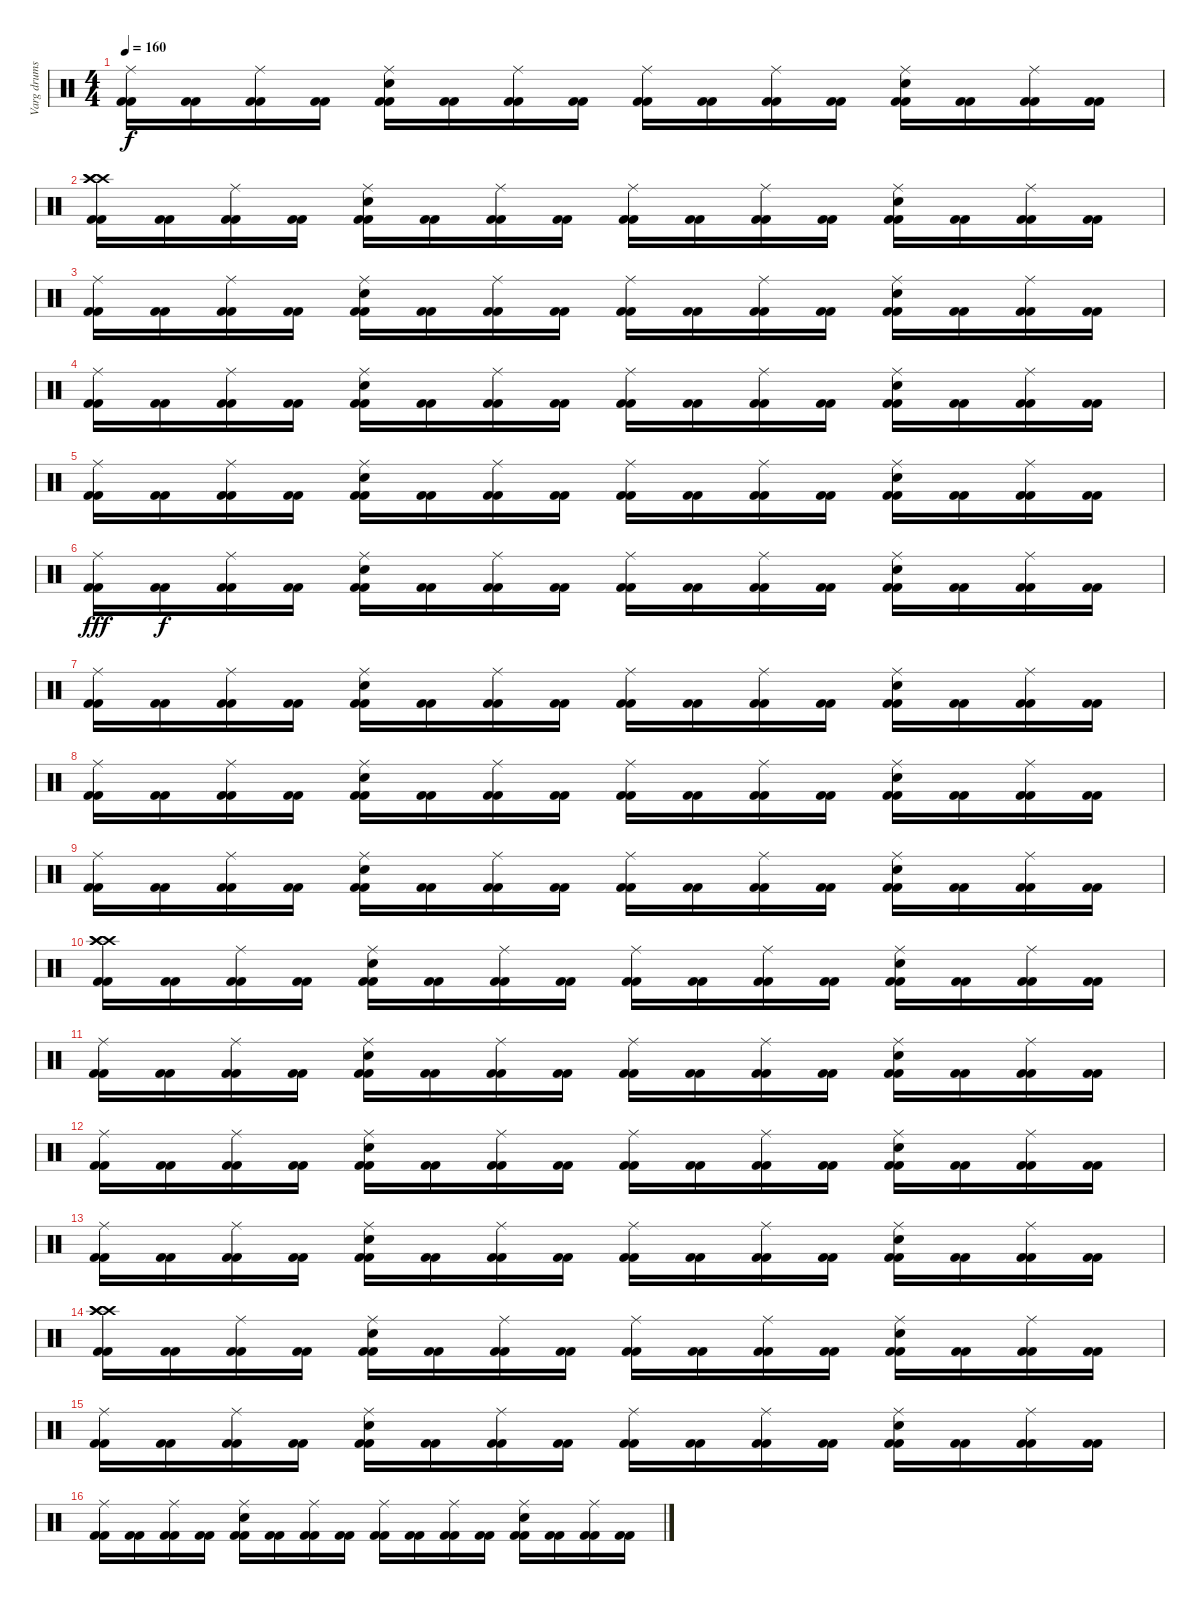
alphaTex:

\track ("Varg drums" "Varg drums") {instrument percussion}
\staff {score}
\articulation defaults
\ts (4 4)
\tempo 160
\clef neutral
\ks c
("Ride (middle)" "Kick (hit) 2" "Kick (hit) 2").16{dy f} ("Kick (hit) 2" "Kick (hit) 2").16 ("Ride (middle)" "Kick (hit) 2" "Kick (hit) 2").16 ("Kick (hit) 2" "Kick (hit) 2").16 ("Ride (middle)" "Electric Snare (hit)" "Kick (hit) 2" "Kick (hit) 2").16 ("Kick (hit) 2" "Kick (hit) 2").16 ("Ride (middle)" "Kick (hit) 2" "Kick (hit) 2").16 ("Kick (hit) 2" "Kick (hit) 2").16 ("Ride (middle)" "Kick (hit) 2" "Kick (hit) 2").16 ("Kick (hit) 2" "Kick (hit) 2").16 ("Ride (middle)" "Kick (hit) 2" "Kick (hit) 2").16 ("Kick (hit) 2" "Kick (hit) 2").16 ("Ride (middle)" "Electric Snare (hit)" "Kick (hit) 2" "Kick (hit) 2").16 ("Kick (hit) 2" "Kick (hit) 2").16 ("Ride (middle)" "Kick (hit) 2" "Kick (hit) 2").16 ("Kick (hit) 2" "Kick (hit) 2").16 |
("Crash high (hit)" "Crash high (hit)" "Crash high (hit)" "Kick (hit) 2" "Kick (hit) 2").16 ("Kick (hit) 2" "Kick (hit) 2").16 ("Ride (middle)" "Kick (hit) 2" "Kick (hit) 2").16 ("Kick (hit) 2" "Kick (hit) 2").16 ("Ride (middle)" "Electric Snare (hit)" "Kick (hit) 2" "Kick (hit) 2").16 ("Kick (hit) 2" "Kick (hit) 2").16 ("Ride (middle)" "Kick (hit) 2" "Kick (hit) 2").16 ("Kick (hit) 2" "Kick (hit) 2").16 ("Ride (middle)" "Kick (hit) 2" "Kick (hit) 2").16 ("Kick (hit) 2" "Kick (hit) 2").16 ("Ride (middle)" "Kick (hit) 2" "Kick (hit) 2").16 ("Kick (hit) 2" "Kick (hit) 2").16 ("Ride (middle)" "Electric Snare (hit)" "Kick (hit) 2" "Kick (hit) 2").16 ("Kick (hit) 2" "Kick (hit) 2").16 ("Ride (middle)" "Kick (hit) 2" "Kick (hit) 2").16 ("Kick (hit) 2" "Kick (hit) 2").16 |
("Ride (middle)" "Kick (hit) 2" "Kick (hit) 2").16 ("Kick (hit) 2" "Kick (hit) 2").16 ("Ride (middle)" "Kick (hit) 2" "Kick (hit) 2").16 ("Kick (hit) 2" "Kick (hit) 2").16 ("Ride (middle)" "Electric Snare (hit)" "Kick (hit) 2" "Kick (hit) 2").16 ("Kick (hit) 2" "Kick (hit) 2").16 ("Ride (middle)" "Kick (hit) 2" "Kick (hit) 2").16 ("Kick (hit) 2" "Kick (hit) 2").16 ("Ride (middle)" "Kick (hit) 2" "Kick (hit) 2").16 ("Kick (hit) 2" "Kick (hit) 2").16 ("Ride (middle)" "Kick (hit) 2" "Kick (hit) 2").16 ("Kick (hit) 2" "Kick (hit) 2").16 ("Ride (middle)" "Electric Snare (hit)" "Kick (hit) 2" "Kick (hit) 2").16 ("Kick (hit) 2" "Kick (hit) 2").16 ("Ride (middle)" "Kick (hit) 2" "Kick (hit) 2").16 ("Kick (hit) 2" "Kick (hit) 2").16 |
("Ride (middle)" "Kick (hit) 2" "Kick (hit) 2").16 ("Kick (hit) 2" "Kick (hit) 2").16 ("Ride (middle)" "Kick (hit) 2" "Kick (hit) 2").16 ("Kick (hit) 2" "Kick (hit) 2").16 ("Ride (middle)" "Electric Snare (hit)" "Kick (hit) 2" "Kick (hit) 2").16 ("Kick (hit) 2" "Kick (hit) 2").16 ("Ride (middle)" "Kick (hit) 2" "Kick (hit) 2").16 ("Kick (hit) 2" "Kick (hit) 2").16 ("Ride (middle)" "Kick (hit) 2" "Kick (hit) 2").16 ("Kick (hit) 2" "Kick (hit) 2").16 ("Ride (middle)" "Kick (hit) 2" "Kick (hit) 2").16 ("Kick (hit) 2" "Kick (hit) 2").16 ("Ride (middle)" "Electric Snare (hit)" "Kick (hit) 2" "Kick (hit) 2").16 ("Kick (hit) 2" "Kick (hit) 2").16 ("Ride (middle)" "Kick (hit) 2" "Kick (hit) 2").16 ("Kick (hit) 2" "Kick (hit) 2").16 |
("Ride (middle)" "Kick (hit) 2" "Kick (hit) 2").16 ("Kick (hit) 2" "Kick (hit) 2").16 ("Ride (middle)" "Kick (hit) 2" "Kick (hit) 2").16 ("Kick (hit) 2" "Kick (hit) 2").16 ("Ride (middle)" "Electric Snare (hit)" "Kick (hit) 2" "Kick (hit) 2").16 ("Kick (hit) 2" "Kick (hit) 2").16 ("Ride (middle)" "Kick (hit) 2" "Kick (hit) 2").16 ("Kick (hit) 2" "Kick (hit) 2").16 ("Ride (middle)" "Kick (hit) 2" "Kick (hit) 2").16 ("Kick (hit) 2" "Kick (hit) 2").16 ("Ride (middle)" "Kick (hit) 2" "Kick (hit) 2").16 ("Kick (hit) 2" "Kick (hit) 2").16 ("Ride (middle)" "Electric Snare (hit)" "Kick (hit) 2" "Kick (hit) 2").16 ("Kick (hit) 2" "Kick (hit) 2").16 ("Ride (middle)" "Kick (hit) 2" "Kick (hit) 2").16 ("Kick (hit) 2" "Kick (hit) 2").16 |
("Ride (middle)" "Kick (hit) 2" "Kick (hit) 2").16{dy fff} ("Kick (hit) 2" "Kick (hit) 2").16{dy f} ("Ride (middle)" "Kick (hit) 2" "Kick (hit) 2").16 ("Kick (hit) 2" "Kick (hit) 2").16 ("Ride (middle)" "Electric Snare (hit)" "Kick (hit) 2" "Kick (hit) 2").16 ("Kick (hit) 2" "Kick (hit) 2").16 ("Ride (middle)" "Kick (hit) 2" "Kick (hit) 2").16 ("Kick (hit) 2" "Kick (hit) 2").16 ("Ride (middle)" "Kick (hit) 2" "Kick (hit) 2").16 ("Kick (hit) 2" "Kick (hit) 2").16 ("Ride (middle)" "Kick (hit) 2" "Kick (hit) 2").16 ("Kick (hit) 2" "Kick (hit) 2").16 ("Ride (middle)" "Electric Snare (hit)" "Kick (hit) 2" "Kick (hit) 2").16 ("Kick (hit) 2" "Kick (hit) 2").16 ("Ride (middle)" "Kick (hit) 2" "Kick (hit) 2").16 ("Kick (hit) 2" "Kick (hit) 2").16 |
("Ride (middle)" "Kick (hit) 2" "Kick (hit) 2").16 ("Kick (hit) 2" "Kick (hit) 2").16 ("Ride (middle)" "Kick (hit) 2" "Kick (hit) 2").16 ("Kick (hit) 2" "Kick (hit) 2").16 ("Ride (middle)" "Electric Snare (hit)" "Kick (hit) 2" "Kick (hit) 2").16 ("Kick (hit) 2" "Kick (hit) 2").16 ("Ride (middle)" "Kick (hit) 2" "Kick (hit) 2").16 ("Kick (hit) 2" "Kick (hit) 2").16 ("Ride (middle)" "Kick (hit) 2" "Kick (hit) 2").16 ("Kick (hit) 2" "Kick (hit) 2").16 ("Ride (middle)" "Kick (hit) 2" "Kick (hit) 2").16 ("Kick (hit) 2" "Kick (hit) 2").16 ("Ride (middle)" "Electric Snare (hit)" "Kick (hit) 2" "Kick (hit) 2").16 ("Kick (hit) 2" "Kick (hit) 2").16 ("Ride (middle)" "Kick (hit) 2" "Kick (hit) 2").16 ("Kick (hit) 2" "Kick (hit) 2").16 |
("Ride (middle)" "Kick (hit) 2" "Kick (hit) 2").16 ("Kick (hit) 2" "Kick (hit) 2").16 ("Ride (middle)" "Kick (hit) 2" "Kick (hit) 2").16 ("Kick (hit) 2" "Kick (hit) 2").16 ("Ride (middle)" "Electric Snare (hit)" "Kick (hit) 2" "Kick (hit) 2").16 ("Kick (hit) 2" "Kick (hit) 2").16 ("Ride (middle)" "Kick (hit) 2" "Kick (hit) 2").16 ("Kick (hit) 2" "Kick (hit) 2").16 ("Ride (middle)" "Kick (hit) 2" "Kick (hit) 2").16 ("Kick (hit) 2" "Kick (hit) 2").16 ("Ride (middle)" "Kick (hit) 2" "Kick (hit) 2").16 ("Kick (hit) 2" "Kick (hit) 2").16 ("Ride (middle)" "Electric Snare (hit)" "Kick (hit) 2" "Kick (hit) 2").16 ("Kick (hit) 2" "Kick (hit) 2").16 ("Ride (middle)" "Kick (hit) 2" "Kick (hit) 2").16 ("Kick (hit) 2" "Kick (hit) 2").16 |
("Ride (middle)" "Kick (hit) 2" "Kick (hit) 2").16 ("Kick (hit) 2" "Kick (hit) 2").16 ("Ride (middle)" "Kick (hit) 2" "Kick (hit) 2").16 ("Kick (hit) 2" "Kick (hit) 2").16 ("Ride (middle)" "Electric Snare (hit)" "Kick (hit) 2" "Kick (hit) 2").16 ("Kick (hit) 2" "Kick (hit) 2").16 ("Ride (middle)" "Kick (hit) 2" "Kick (hit) 2").16 ("Kick (hit) 2" "Kick (hit) 2").16 ("Ride (middle)" "Kick (hit) 2" "Kick (hit) 2").16 ("Kick (hit) 2" "Kick (hit) 2").16 ("Ride (middle)" "Kick (hit) 2" "Kick (hit) 2").16 ("Kick (hit) 2" "Kick (hit) 2").16 ("Ride (middle)" "Electric Snare (hit)" "Kick (hit) 2" "Kick (hit) 2").16 ("Kick (hit) 2" "Kick (hit) 2").16 ("Ride (middle)" "Kick (hit) 2" "Kick (hit) 2").16 ("Kick (hit) 2" "Kick (hit) 2").16 |
("Crash high (hit)" "Crash high (hit)" "Crash high (hit)" "Kick (hit) 2" "Kick (hit) 2").16 ("Kick (hit) 2" "Kick (hit) 2").16 ("Ride (middle)" "Kick (hit) 2" "Kick (hit) 2").16 ("Kick (hit) 2" "Kick (hit) 2").16 ("Ride (middle)" "Electric Snare (hit)" "Kick (hit) 2" "Kick (hit) 2").16 ("Kick (hit) 2" "Kick (hit) 2").16 ("Ride (middle)" "Kick (hit) 2" "Kick (hit) 2").16 ("Kick (hit) 2" "Kick (hit) 2").16 ("Ride (middle)" "Kick (hit) 2" "Kick (hit) 2").16 ("Kick (hit) 2" "Kick (hit) 2").16 ("Ride (middle)" "Kick (hit) 2" "Kick (hit) 2").16 ("Kick (hit) 2" "Kick (hit) 2").16 ("Ride (middle)" "Electric Snare (hit)" "Kick (hit) 2" "Kick (hit) 2").16 ("Kick (hit) 2" "Kick (hit) 2").16 ("Ride (middle)" "Kick (hit) 2" "Kick (hit) 2").16 ("Kick (hit) 2" "Kick (hit) 2").16 |
("Ride (middle)" "Kick (hit) 2" "Kick (hit) 2").16 ("Kick (hit) 2" "Kick (hit) 2").16 ("Ride (middle)" "Kick (hit) 2" "Kick (hit) 2").16 ("Kick (hit) 2" "Kick (hit) 2").16 ("Ride (middle)" "Electric Snare (hit)" "Kick (hit) 2" "Kick (hit) 2").16 ("Kick (hit) 2" "Kick (hit) 2").16 ("Ride (middle)" "Kick (hit) 2" "Kick (hit) 2").16 ("Kick (hit) 2" "Kick (hit) 2").16 ("Ride (middle)" "Kick (hit) 2" "Kick (hit) 2").16 ("Kick (hit) 2" "Kick (hit) 2").16 ("Ride (middle)" "Kick (hit) 2" "Kick (hit) 2").16 ("Kick (hit) 2" "Kick (hit) 2").16 ("Ride (middle)" "Electric Snare (hit)" "Kick (hit) 2" "Kick (hit) 2").16 ("Kick (hit) 2" "Kick (hit) 2").16 ("Ride (middle)" "Kick (hit) 2" "Kick (hit) 2").16 ("Kick (hit) 2" "Kick (hit) 2").16 |
("Ride (middle)" "Kick (hit) 2" "Kick (hit) 2").16 ("Kick (hit) 2" "Kick (hit) 2").16 ("Ride (middle)" "Kick (hit) 2" "Kick (hit) 2").16 ("Kick (hit) 2" "Kick (hit) 2").16 ("Ride (middle)" "Electric Snare (hit)" "Kick (hit) 2" "Kick (hit) 2").16 ("Kick (hit) 2" "Kick (hit) 2").16 ("Ride (middle)" "Kick (hit) 2" "Kick (hit) 2").16 ("Kick (hit) 2" "Kick (hit) 2").16 ("Ride (middle)" "Kick (hit) 2" "Kick (hit) 2").16 ("Kick (hit) 2" "Kick (hit) 2").16 ("Ride (middle)" "Kick (hit) 2" "Kick (hit) 2").16 ("Kick (hit) 2" "Kick (hit) 2").16 ("Ride (middle)" "Electric Snare (hit)" "Kick (hit) 2" "Kick (hit) 2").16 ("Kick (hit) 2" "Kick (hit) 2").16 ("Ride (middle)" "Kick (hit) 2" "Kick (hit) 2").16 ("Kick (hit) 2" "Kick (hit) 2").16 |
("Ride (middle)" "Kick (hit) 2" "Kick (hit) 2").16 ("Kick (hit) 2" "Kick (hit) 2").16 ("Ride (middle)" "Kick (hit) 2" "Kick (hit) 2").16 ("Kick (hit) 2" "Kick (hit) 2").16 ("Ride (middle)" "Electric Snare (hit)" "Kick (hit) 2" "Kick (hit) 2").16 ("Kick (hit) 2" "Kick (hit) 2").16 ("Ride (middle)" "Kick (hit) 2" "Kick (hit) 2").16 ("Kick (hit) 2" "Kick (hit) 2").16 ("Ride (middle)" "Kick (hit) 2" "Kick (hit) 2").16 ("Kick (hit) 2" "Kick (hit) 2").16 ("Ride (middle)" "Kick (hit) 2" "Kick (hit) 2").16 ("Kick (hit) 2" "Kick (hit) 2").16 ("Ride (middle)" "Electric Snare (hit)" "Kick (hit) 2" "Kick (hit) 2").16 ("Kick (hit) 2" "Kick (hit) 2").16 ("Ride (middle)" "Kick (hit) 2" "Kick (hit) 2").16 ("Kick (hit) 2" "Kick (hit) 2").16 |
("Crash high (hit)" "Crash high (hit)" "Crash high (hit)" "Kick (hit) 2" "Kick (hit) 2").16 ("Kick (hit) 2" "Kick (hit) 2").16 ("Ride (middle)" "Kick (hit) 2" "Kick (hit) 2").16 ("Kick (hit) 2" "Kick (hit) 2").16 ("Ride (middle)" "Electric Snare (hit)" "Kick (hit) 2" "Kick (hit) 2").16 ("Kick (hit) 2" "Kick (hit) 2").16 ("Ride (middle)" "Kick (hit) 2" "Kick (hit) 2").16 ("Kick (hit) 2" "Kick (hit) 2").16 ("Ride (middle)" "Kick (hit) 2" "Kick (hit) 2").16 ("Kick (hit) 2" "Kick (hit) 2").16 ("Ride (middle)" "Kick (hit) 2" "Kick (hit) 2").16 ("Kick (hit) 2" "Kick (hit) 2").16 ("Ride (middle)" "Electric Snare (hit)" "Kick (hit) 2" "Kick (hit) 2").16 ("Kick (hit) 2" "Kick (hit) 2").16 ("Ride (middle)" "Kick (hit) 2" "Kick (hit) 2").16 ("Kick (hit) 2" "Kick (hit) 2").16 |
("Ride (middle)" "Kick (hit) 2" "Kick (hit) 2").16 ("Kick (hit) 2" "Kick (hit) 2").16 ("Ride (middle)" "Kick (hit) 2" "Kick (hit) 2").16 ("Kick (hit) 2" "Kick (hit) 2").16 ("Ride (middle)" "Electric Snare (hit)" "Kick (hit) 2" "Kick (hit) 2").16 ("Kick (hit) 2" "Kick (hit) 2").16 ("Ride (middle)" "Kick (hit) 2" "Kick (hit) 2").16 ("Kick (hit) 2" "Kick (hit) 2").16 ("Ride (middle)" "Kick (hit) 2" "Kick (hit) 2").16 ("Kick (hit) 2" "Kick (hit) 2").16 ("Ride (middle)" "Kick (hit) 2" "Kick (hit) 2").16 ("Kick (hit) 2" "Kick (hit) 2").16 ("Ride (middle)" "Electric Snare (hit)" "Kick (hit) 2" "Kick (hit) 2").16 ("Kick (hit) 2" "Kick (hit) 2").16 ("Ride (middle)" "Kick (hit) 2" "Kick (hit) 2").16 ("Kick (hit) 2" "Kick (hit) 2").16 |
("Ride (middle)" "Kick (hit) 2" "Kick (hit) 2").16 ("Kick (hit) 2" "Kick (hit) 2").16 ("Ride (middle)" "Kick (hit) 2" "Kick (hit) 2").16 ("Kick (hit) 2" "Kick (hit) 2").16 ("Ride (middle)" "Electric Snare (hit)" "Kick (hit) 2" "Kick (hit) 2").16 ("Kick (hit) 2" "Kick (hit) 2").16 ("Ride (middle)" "Kick (hit) 2" "Kick (hit) 2").16 ("Kick (hit) 2" "Kick (hit) 2").16 ("Ride (middle)" "Kick (hit) 2" "Kick (hit) 2").16 ("Kick (hit) 2" "Kick (hit) 2").16 ("Ride (middle)" "Kick (hit) 2" "Kick (hit) 2").16 ("Kick (hit) 2" "Kick (hit) 2").16 ("Ride (middle)" "Electric Snare (hit)" "Kick (hit) 2" "Kick (hit) 2").16 ("Kick (hit) 2" "Kick (hit) 2").16 ("Ride (middle)" "Kick (hit) 2" "Kick (hit) 2").16 ("Kick (hit) 2" "Kick (hit) 2").16
